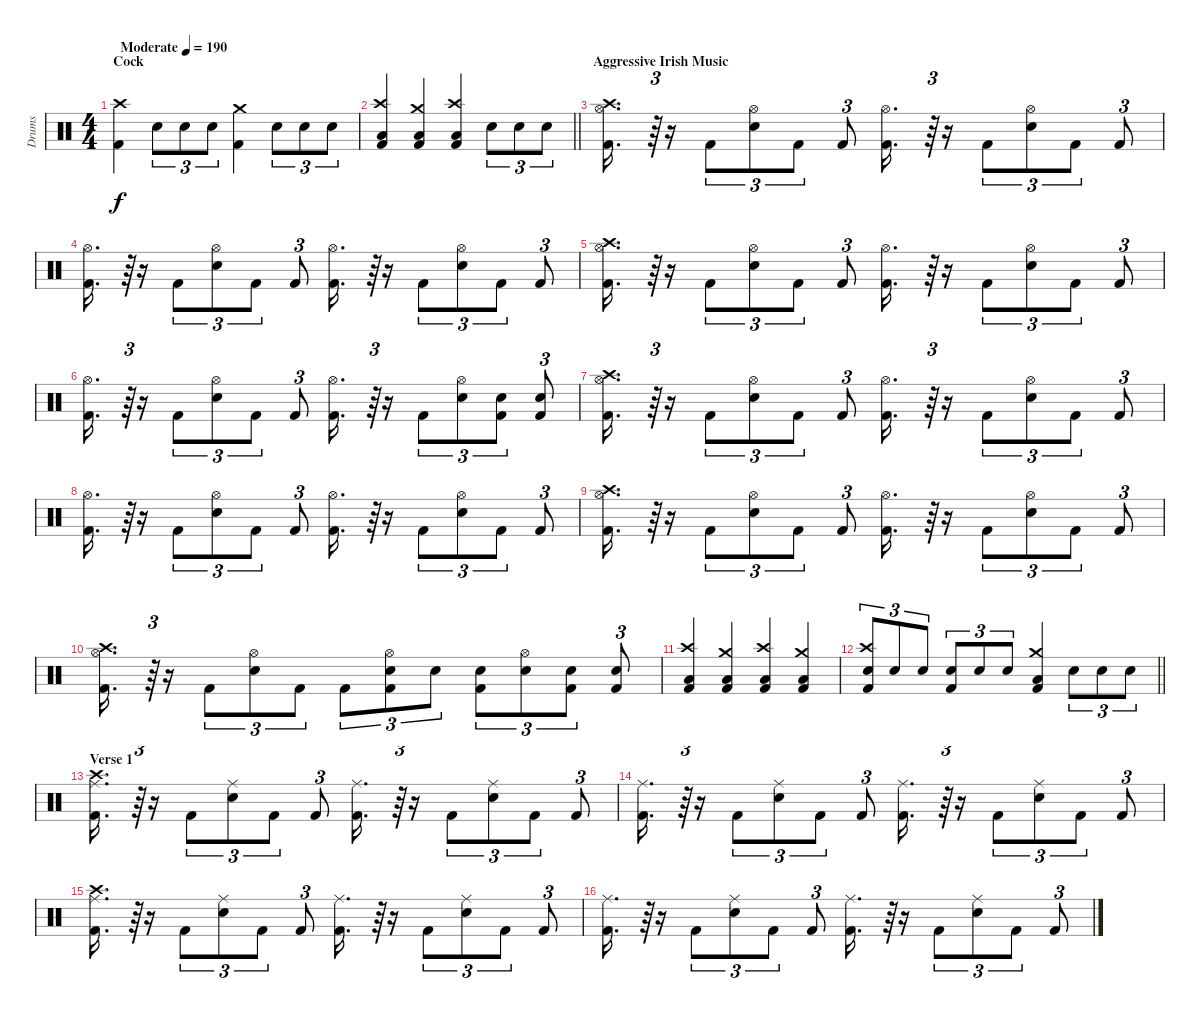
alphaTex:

\track ("Drums" "Drums") {instrument percussion}
\staff {score}
\articulation defaults
\ts (4 4)
\section ("" "Cock")
\tempo (190 "Moderate")
\clef neutral
\ks c
("Kick (hit) 2" "Crash high (hit)").4{dy f} "Snare (hit) 2".8{tu (3 2)} "Snare (hit) 2".8{tu (3 2)} "Snare (hit) 2".8{tu (3 2)} ("Kick (hit) 2" "Crash medium (hit)").4 "Snare (hit) 2".8{tu (3 2)} "Snare (hit) 2".8{tu (3 2)} "Snare (hit) 2".8{tu (3 2)} |
\barLineRight lightlight
("Kick (hit) 2" "Low Floor Tom (hit)" "Crash high (hit)").4 ("Kick (hit) 2" "Low Floor Tom (hit)" "Crash medium (hit)").4 ("Kick (hit) 2" "Low Floor Tom (hit)" "Crash high (hit)").4 "Snare (hit) 2".8{tu (3 2)} "Snare (hit) 2".8{tu (3 2)} "Snare (hit) 2".8{tu (3 2)} |
\section ("" "Aggressive Irish Music")
("Kick (hit) 2" "Hi-Hat (open)" "Crash high (hit)").16{d} r.64{tu (3 2)} r.16 "Kick (hit) 2".8{tu (3 2)} ("Snare (hit) 2" "Hi-Hat (open)").8{tu (3 2)} "Kick (hit) 2".8{tu (3 2)} "Kick (hit) 2".8{tu (3 2)} ("Kick (hit) 2" "Hi-Hat (open)").16{d} r.64{tu (3 2)} r.16 "Kick (hit) 2".8{tu (3 2)} ("Snare (hit) 2" "Hi-Hat (open)").8{tu (3 2)} "Kick (hit) 2".8{tu (3 2)} "Kick (hit) 2".8{tu (3 2)} |
("Kick (hit) 2" "Hi-Hat (open)").16{d} r.64{tu (3 2)} r.16 "Kick (hit) 2".8{tu (3 2)} ("Snare (hit) 2" "Hi-Hat (open)").8{tu (3 2)} "Kick (hit) 2".8{tu (3 2)} "Kick (hit) 2".8{tu (3 2)} ("Kick (hit) 2" "Hi-Hat (open)").16{d} r.64{tu (3 2)} r.16 "Kick (hit) 2".8{tu (3 2)} ("Snare (hit) 2" "Hi-Hat (open)").8{tu (3 2)} "Kick (hit) 2".8{tu (3 2)} "Kick (hit) 2".8{tu (3 2)} |
("Kick (hit) 2" "Hi-Hat (open)" "Crash high (hit)").16{d} r.64{tu (3 2)} r.16 "Kick (hit) 2".8{tu (3 2)} ("Snare (hit) 2" "Hi-Hat (open)").8{tu (3 2)} "Kick (hit) 2".8{tu (3 2)} "Kick (hit) 2".8{tu (3 2)} ("Kick (hit) 2" "Hi-Hat (open)").16{d} r.64{tu (3 2)} r.16 "Kick (hit) 2".8{tu (3 2)} ("Snare (hit) 2" "Hi-Hat (open)").8{tu (3 2)} "Kick (hit) 2".8{tu (3 2)} "Kick (hit) 2".8{tu (3 2)} |
("Kick (hit) 2" "Hi-Hat (open)").16{d} r.64{tu (3 2)} r.16 "Kick (hit) 2".8{tu (3 2)} ("Snare (hit) 2" "Hi-Hat (open)").8{tu (3 2)} "Kick (hit) 2".8{tu (3 2)} "Kick (hit) 2".8{tu (3 2)} ("Kick (hit) 2" "Hi-Hat (open)").16{d} r.64{tu (3 2)} r.16 "Kick (hit) 2".8{tu (3 2)} ("Snare (hit) 2" "Hi-Hat (open)").8{tu (3 2)} ("Kick (hit) 2" "Snare (hit) 2").8{tu (3 2)} ("Kick (hit) 2" "Snare (hit) 2").8{tu (3 2)} |
("Kick (hit) 2" "Hi-Hat (open)" "Crash high (hit)").16{d} r.64{tu (3 2)} r.16 "Kick (hit) 2".8{tu (3 2)} ("Snare (hit) 2" "Hi-Hat (open)").8{tu (3 2)} "Kick (hit) 2".8{tu (3 2)} "Kick (hit) 2".8{tu (3 2)} ("Kick (hit) 2" "Hi-Hat (open)").16{d} r.64{tu (3 2)} r.16 "Kick (hit) 2".8{tu (3 2)} ("Snare (hit) 2" "Hi-Hat (open)").8{tu (3 2)} "Kick (hit) 2".8{tu (3 2)} "Kick (hit) 2".8{tu (3 2)} |
("Kick (hit) 2" "Hi-Hat (open)").16{d} r.64{tu (3 2)} r.16 "Kick (hit) 2".8{tu (3 2)} ("Snare (hit) 2" "Hi-Hat (open)").8{tu (3 2)} "Kick (hit) 2".8{tu (3 2)} "Kick (hit) 2".8{tu (3 2)} ("Kick (hit) 2" "Hi-Hat (open)").16{d} r.64{tu (3 2)} r.16 "Kick (hit) 2".8{tu (3 2)} ("Snare (hit) 2" "Hi-Hat (open)").8{tu (3 2)} "Kick (hit) 2".8{tu (3 2)} "Kick (hit) 2".8{tu (3 2)} |
("Kick (hit) 2" "Hi-Hat (open)" "Crash high (hit)").16{d} r.64{tu (3 2)} r.16 "Kick (hit) 2".8{tu (3 2)} ("Snare (hit) 2" "Hi-Hat (open)").8{tu (3 2)} "Kick (hit) 2".8{tu (3 2)} "Kick (hit) 2".8{tu (3 2)} ("Kick (hit) 2" "Hi-Hat (open)").16{d} r.64{tu (3 2)} r.16 "Kick (hit) 2".8{tu (3 2)} ("Snare (hit) 2" "Hi-Hat (open)").8{tu (3 2)} "Kick (hit) 2".8{tu (3 2)} "Kick (hit) 2".8{tu (3 2)} |
("Kick (hit) 2" "Hi-Hat (open)" "Crash high (hit)").16{d} r.64{tu (3 2)} r.16 "Kick (hit) 2".8{tu (3 2)} ("Snare (hit) 2" "Hi-Hat (open)").8{tu (3 2)} "Kick (hit) 2".8{tu (3 2)} "Kick (hit) 2".8{tu (3 2)} ("Kick (hit) 2" "Snare (hit) 2" "Hi-Hat (open)").8{tu (3 2)} "Snare (hit) 2".8{tu (3 2)} ("Kick (hit) 2" "Snare (hit) 2").8{tu (3 2)} ("Snare (hit) 2" "Hi-Hat (open)").8{tu (3 2)} ("Kick (hit) 2" "Snare (hit) 2").8{tu (3 2)} ("Kick (hit) 2" "Snare (hit) 2").8{tu (3 2)} |
("Kick (hit) 2" "Low Floor Tom (hit)" "Crash high (hit)").4 ("Kick (hit) 2" "Low Floor Tom (hit)" "Crash medium (hit)").4 ("Kick (hit) 2" "Low Floor Tom (hit)" "Crash high (hit)").4 ("Kick (hit) 2" "Low Floor Tom (hit)" "Crash medium (hit)").4 |
\barLineRight lightlight
("Kick (hit) 2" "Snare (hit) 2" "Crash high (hit)").8{tu (3 2)} "Snare (hit) 2".8{tu (3 2)} "Snare (hit) 2".8{tu (3 2)} ("Kick (hit) 2" "Snare (hit) 2").8{tu (3 2)} "Snare (hit) 2".8{tu (3 2)} "Snare (hit) 2".8{tu (3 2)} ("Kick (hit) 2" "Low Floor Tom (hit)" "Crash medium (hit)").4 "Snare (hit) 2".8{tu (3 2)} "Snare (hit) 2".8{tu (3 2)} "Snare (hit) 2".8{tu (3 2)} |
\section ("" "Verse 1")
("Kick (hit) 2" "Crash high (hit)" "Ride (middle)").16{d} r.64{tu (3 2)} r.16 "Kick (hit) 2".8{tu (3 2)} ("Snare (hit) 2" "Ride (middle)").8{tu (3 2)} "Kick (hit) 2".8{tu (3 2)} "Kick (hit) 2".8{tu (3 2)} ("Kick (hit) 2" "Ride (middle)").16{d} r.64{tu (3 2)} r.16 "Kick (hit) 2".8{tu (3 2)} ("Snare (hit) 2" "Ride (middle)").8{tu (3 2)} "Kick (hit) 2".8{tu (3 2)} "Kick (hit) 2".8{tu (3 2)} |
("Kick (hit) 2" "Ride (middle)").16{d} r.64{tu (3 2)} r.16 "Kick (hit) 2".8{tu (3 2)} ("Snare (hit) 2" "Ride (middle)").8{tu (3 2)} "Kick (hit) 2".8{tu (3 2)} "Kick (hit) 2".8{tu (3 2)} ("Kick (hit) 2" "Ride (middle)").16{d} r.64{tu (3 2)} r.16 "Kick (hit) 2".8{tu (3 2)} ("Snare (hit) 2" "Ride (middle)").8{tu (3 2)} "Kick (hit) 2".8{tu (3 2)} "Kick (hit) 2".8{tu (3 2)} |
("Kick (hit) 2" "Crash high (hit)" "Ride (middle)").16{d} r.64{tu (3 2)} r.16 "Kick (hit) 2".8{tu (3 2)} ("Snare (hit) 2" "Ride (middle)").8{tu (3 2)} "Kick (hit) 2".8{tu (3 2)} "Kick (hit) 2".8{tu (3 2)} ("Kick (hit) 2" "Ride (middle)").16{d} r.64{tu (3 2)} r.16 "Kick (hit) 2".8{tu (3 2)} ("Snare (hit) 2" "Ride (middle)").8{tu (3 2)} "Kick (hit) 2".8{tu (3 2)} "Kick (hit) 2".8{tu (3 2)} |
("Kick (hit) 2" "Ride (middle)").16{d} r.64{tu (3 2)} r.16 "Kick (hit) 2".8{tu (3 2)} ("Snare (hit) 2" "Ride (middle)").8{tu (3 2)} "Kick (hit) 2".8{tu (3 2)} "Kick (hit) 2".8{tu (3 2)} ("Kick (hit) 2" "Ride (middle)").16{d} r.64{tu (3 2)} r.16 "Kick (hit) 2".8{tu (3 2)} ("Snare (hit) 2" "Ride (middle)").8{tu (3 2)} "Kick (hit) 2".8{tu (3 2)} "Kick (hit) 2".8{tu (3 2)}
